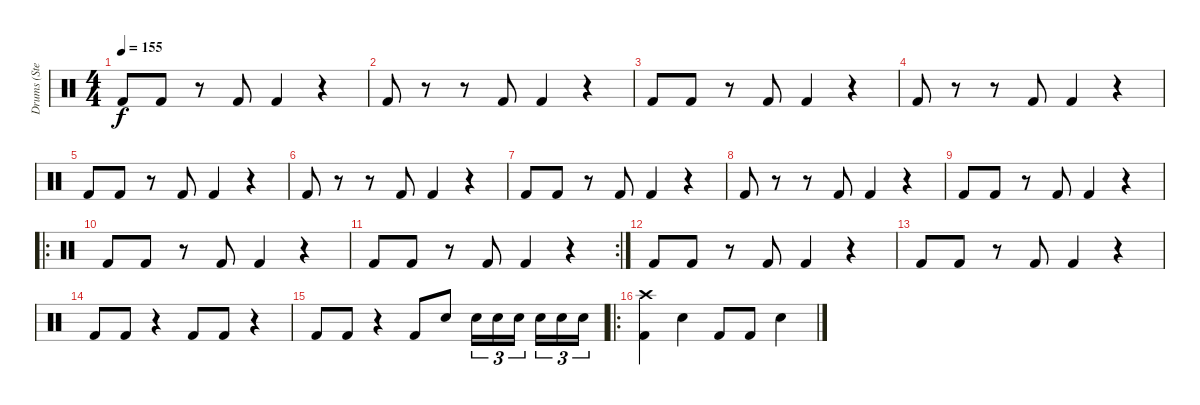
\track ("Drums (Stephen Morris)" "Drums (Ste") {instrument percussion}
\staff {score}
\articulation defaults
\ts (4 4)
\tempo 155
\clef neutral
\ks c "Kick (hit) 2".8{dy f} "Kick (hit) 2".8
r.8 "Kick (hit) 2".8 "Kick (hit) 2".4 r.4 |
"Kick (hit) 2".8 r.8 r.8 "Kick (hit) 2".8 "Kick (hit) 2".4 r.4 |
"Kick (hit) 2".8 "Kick (hit) 2".8 r.8 "Kick (hit) 2".8 "Kick (hit) 2".4 r.4 |
"Kick (hit) 2".8 r.8 r.8 "Kick (hit) 2".8 "Kick (hit) 2".4 r.4 |
"Kick (hit) 2".8 "Kick (hit) 2".8 r.8 "Kick (hit) 2".8 "Kick (hit) 2".4 r.4 |
"Kick (hit) 2".8 r.8 r.8 "Kick (hit) 2".8 "Kick (hit) 2".4 r.4 |
"Kick (hit) 2".8 "Kick (hit) 2".8 r.8 "Kick (hit) 2".8 "Kick (hit) 2".4 r.4 |
"Kick (hit) 2".8 r.8 r.8 "Kick (hit) 2".8 "Kick (hit) 2".4 r.4 |
"Kick (hit) 2".8 "Kick (hit) 2".8 r.8 "Kick (hit) 2".8 "Kick (hit) 2".4 r.4 |
\ro "Kick (hit) 2".8 "Kick (hit) 2".8
r.8 "Kick (hit) 2".8 "Kick (hit) 2".4 r.4 |
\rc 2 "Kick (hit) 2".8 "Kick (hit) 2".8
r.8 "Kick (hit) 2".8 "Kick (hit) 2".4 r.4 |
"Kick (hit) 2".8 "Kick (hit) 2".8 r.8 "Kick (hit) 2".8 "Kick (hit) 2".4 r.4 |
"Kick (hit) 2".8 "Kick (hit) 2".8 r.8 "Kick (hit) 2".8 "Kick (hit) 2".4 r.4 |
"Kick (hit) 2".8 "Kick (hit) 2".8 r.4 "Kick (hit) 2".8 "Kick (hit) 2".8 r.4 |
"Kick (hit) 2".8 "Kick (hit) 2".8 r.4 "Kick (hit) 2".8 "Snare (hit) 2".8 "Snare (hit) 2".16{tu (3 2)} "Snare (hit) 2".16{tu (3 2)} "Snare (hit) 2".16{tu (3 2) beam splitsecondary} "Snare (hit) 2".16{tu (3 2)} "Snare (hit) 2".16{tu (3 2)} "Snare (hit) 2".16{tu (3 2)} |
\ro
("Crash high (hit)" "Kick (hit) 2").4 "Snare (hit) 2".4 "Kick (hit) 2".8 "Kick (hit) 2".8 "Snare (hit) 2".4
